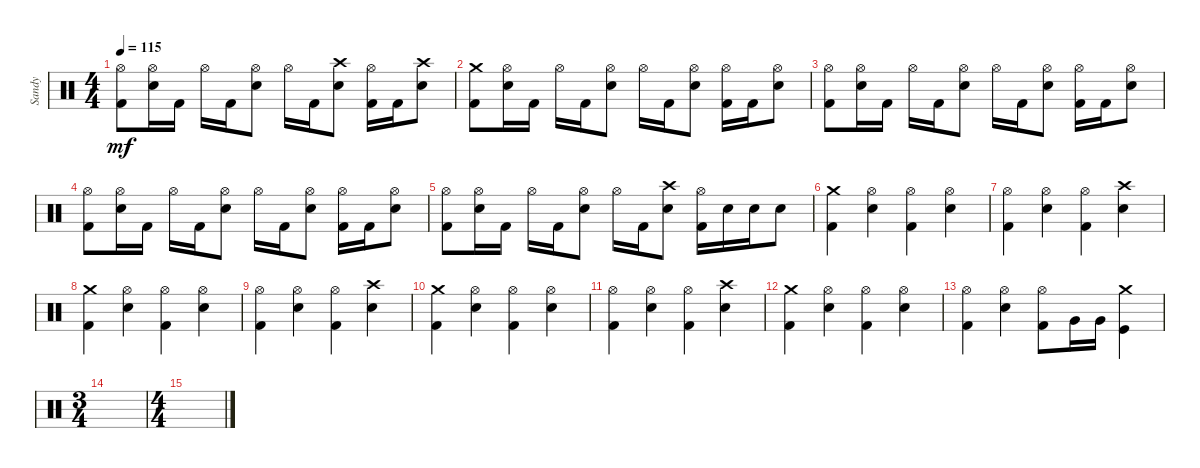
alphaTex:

\track ("Sandy" "Sandy") {instrument percussion}
\staff {score}
\articulation defaults
\ts (4 4)
\tempo 115
\clef neutral
\ks c
("Hi-Hat (open)" "Kick (hit) 2").8{dy mf} ("Hi-Hat (open)" "Snare (hit) 2").16 "Kick (hit) 2".16 "Hi-Hat (open)".16 "Kick (hit) 2".16 ("Hi-Hat (open)" "Snare (hit) 2").8 "Hi-Hat (open)".16 "Kick (hit) 2".16 ("Crash high (hit)" "Snare (hit) 2").8 ("Hi-Hat (open)" "Kick (hit) 2").16 "Kick (hit) 2".16 ("Crash high (hit)" "Snare (hit) 2").8 |
("Crash medium (hit)" "Kick (hit) 2").8 ("Hi-Hat (open)" "Snare (hit) 2").16 "Kick (hit) 2".16 "Hi-Hat (open)".16 "Kick (hit) 2".16 ("Hi-Hat (open)" "Snare (hit) 2").8 "Hi-Hat (open)".16 "Kick (hit) 2".16 ("Hi-Hat (open)" "Snare (hit) 2").8 ("Hi-Hat (open)" "Kick (hit) 2").16 "Kick (hit) 2".16 ("Hi-Hat (open)" "Snare (hit) 2").8 |
("Hi-Hat (open)" "Kick (hit) 2").8 ("Hi-Hat (open)" "Snare (hit) 2").16 "Kick (hit) 2".16 "Hi-Hat (open)".16 "Kick (hit) 2".16 ("Hi-Hat (open)" "Snare (hit) 2").8 "Hi-Hat (open)".16 "Kick (hit) 2".16 ("Hi-Hat (open)" "Snare (hit) 2").8 ("Hi-Hat (open)" "Kick (hit) 2").16 "Kick (hit) 2".16 ("Hi-Hat (open)" "Snare (hit) 2").8 |
("Hi-Hat (open)" "Kick (hit) 2").8 ("Hi-Hat (open)" "Snare (hit) 2").16 "Kick (hit) 2".16 "Hi-Hat (open)".16 "Kick (hit) 2".16 ("Hi-Hat (open)" "Snare (hit) 2").8 "Hi-Hat (open)".16 "Kick (hit) 2".16 ("Hi-Hat (open)" "Snare (hit) 2").8 ("Hi-Hat (open)" "Kick (hit) 2").16 "Kick (hit) 2".16 ("Hi-Hat (open)" "Snare (hit) 2").8 |
("Hi-Hat (open)" "Kick (hit) 2").8 ("Hi-Hat (open)" "Snare (hit) 2").16 "Kick (hit) 2".16 "Hi-Hat (open)".16 "Kick (hit) 2".16 ("Hi-Hat (open)" "Snare (hit) 2").8 "Hi-Hat (open)".16 "Kick (hit) 2".16 ("Crash high (hit)" "Snare (hit) 2").8 ("Hi-Hat (open)" "Kick (hit) 2").16 "Snare (hit) 2".16 "Snare (hit) 2".16 "Snare (hit) 2".8 |
("Crash medium (hit)" "Kick (hit) 2").4 ("Hi-Hat (open)" "Snare (hit) 2").4 ("Hi-Hat (open)" "Kick (hit) 2").4 ("Hi-Hat (open)" "Snare (hit) 2").4 |
("Hi-Hat (open)" "Kick (hit) 2").4 ("Hi-Hat (open)" "Snare (hit) 2").4 ("Hi-Hat (open)" "Kick (hit) 2").4 ("Crash high (hit)" "Snare (hit) 2").4 |
("Crash medium (hit)" "Kick (hit) 2").4 ("Hi-Hat (open)" "Snare (hit) 2").4 ("Hi-Hat (open)" "Kick (hit) 2").4 ("Hi-Hat (open)" "Snare (hit) 2").4 |
("Hi-Hat (open)" "Kick (hit) 2").4 ("Hi-Hat (open)" "Snare (hit) 2").4 ("Hi-Hat (open)" "Kick (hit) 2").4 ("Crash high (hit)" "Snare (hit) 2").4 |
("Crash medium (hit)" "Kick (hit) 2").4 ("Hi-Hat (open)" "Snare (hit) 2").4 ("Hi-Hat (open)" "Kick (hit) 2").4 ("Hi-Hat (open)" "Snare (hit) 2").4 |
("Hi-Hat (open)" "Kick (hit) 2").4 ("Hi-Hat (open)" "Snare (hit) 2").4 ("Hi-Hat (open)" "Kick (hit) 2").4 ("Crash high (hit)" "Snare (hit) 2").4 |
("Crash medium (hit)" "Kick (hit) 2").4 ("Hi-Hat (open)" "Snare (hit) 2").4 ("Hi-Hat (open)" "Kick (hit) 2").4 ("Hi-Hat (open)" "Snare (hit) 2").4 |
("Hi-Hat (open)" "Kick (hit) 2").4 ("Hi-Hat (open)" "Snare (hit) 2").4 ("Hi-Hat (open)" "Kick (hit) 2").8 "Very Low Tom (hit)".16 "Very Low Tom (hit)".16 ("Crash medium (hit)" "Kick (hit)").4 |
\ts (3 4)
|
\ts (4 4)
